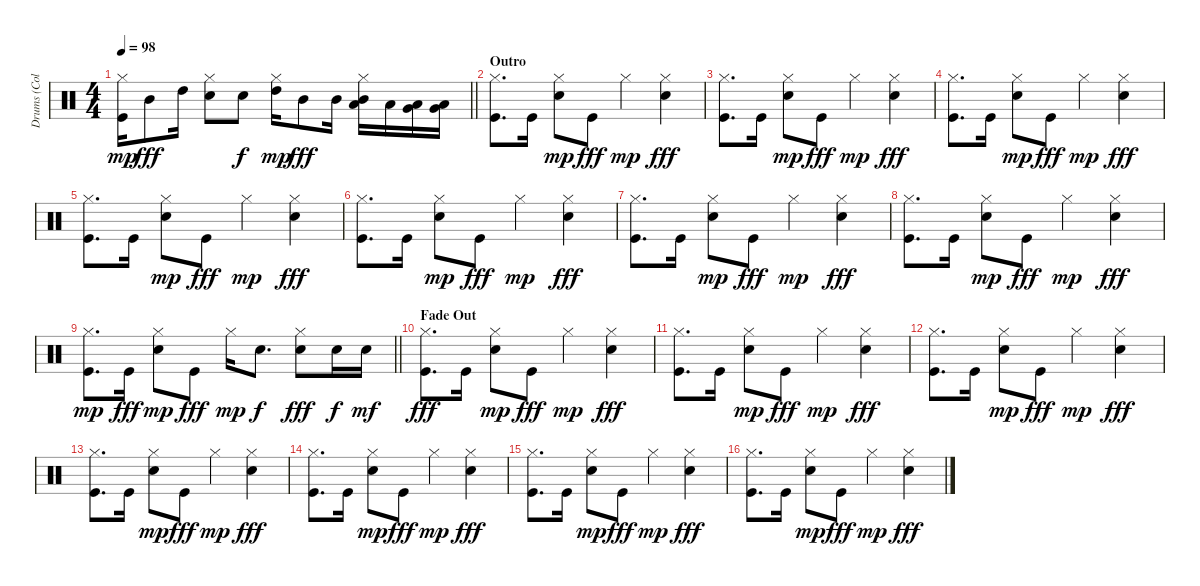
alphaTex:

\track ("Drums (Collins)" "Drums (Col") {instrument percussion}
\staff {score}
\articulation defaults
\ts (4 4)
\tempo 98
\clef neutral
\barLineRight lightlight
\ks c
("Kick (hit)" "Hi-Hat (closed)").16{dy mp} "Mid Tom (hit)".8{dy fff} "High Tom (hit)".16 ("Hi-Hat (closed)" "Electric Snare (hit)").8 "Electric Snare (hit)".8{dy f} ("High Tom (hit)" "Hi-Hat (closed)").16{dy mp} "Mid Tom (hit)".8{dy fff} "Mid Tom (hit)".16 ("Mid Tom (hit)" "Low Tom (hit)" "Hi-Hat (closed)").16 "Low Tom (hit)".16 ("Low Tom (hit)" "Very Low Tom (hit)").16 ("Low Tom (hit)" "Very Low Tom (hit)").16 |
\section ("" "Outro")
("Hi-Hat (closed)" "Kick (hit)").8{d} "Kick (hit)".16 ("Electric Snare (hit)" "Hi-Hat (closed)").8{dy mp} "Kick (hit)".8{dy fff} "Hi-Hat (closed)".4{dy mp} ("Hi-Hat (closed)" "Electric Snare (hit)").4{dy fff} |
("Hi-Hat (closed)" "Kick (hit)").8{d} "Kick (hit)".16 ("Electric Snare (hit)" "Hi-Hat (closed)").8{dy mp} "Kick (hit)".8{dy fff} "Hi-Hat (closed)".4{dy mp} ("Hi-Hat (closed)" "Electric Snare (hit)").4{dy fff} |
("Hi-Hat (closed)" "Kick (hit)").8{d} "Kick (hit)".16 ("Electric Snare (hit)" "Hi-Hat (closed)").8{dy mp} "Kick (hit)".8{dy fff} "Hi-Hat (closed)".4{dy mp} ("Hi-Hat (closed)" "Electric Snare (hit)").4{dy fff} |
("Hi-Hat (closed)" "Kick (hit)").8{d} "Kick (hit)".16 ("Electric Snare (hit)" "Hi-Hat (closed)").8{dy mp} "Kick (hit)".8{dy fff} "Hi-Hat (closed)".4{dy mp} ("Hi-Hat (closed)" "Electric Snare (hit)").4{dy fff} |
("Hi-Hat (closed)" "Kick (hit)").8{d} "Kick (hit)".16 ("Electric Snare (hit)" "Hi-Hat (closed)").8{dy mp} "Kick (hit)".8{dy fff} "Hi-Hat (closed)".4{dy mp} ("Hi-Hat (closed)" "Electric Snare (hit)").4{dy fff} |
("Hi-Hat (closed)" "Kick (hit)").8{d} "Kick (hit)".16 ("Electric Snare (hit)" "Hi-Hat (closed)").8{dy mp} "Kick (hit)".8{dy fff} "Hi-Hat (closed)".4{dy mp} ("Hi-Hat (closed)" "Electric Snare (hit)").4{dy fff} |
("Hi-Hat (closed)" "Kick (hit)").8{d} "Kick (hit)".16 ("Electric Snare (hit)" "Hi-Hat (closed)").8{dy mp} "Kick (hit)".8{dy fff} "Hi-Hat (closed)".4{dy mp} ("Hi-Hat (closed)" "Electric Snare (hit)").4{dy fff} |
\barLineRight lightlight
("Kick (hit)" "Hi-Hat (closed)").8{d dy mp} "Kick (hit)".16{dy fff} ("Electric Snare (hit)" "Hi-Hat (closed)").8{dy mp} "Kick (hit)".8{dy fff} "Hi-Hat (closed)".16{dy mp} "Electric Snare (hit)".8{d dy f} ("Hi-Hat (closed)" "Electric Snare (hit)").8{dy fff} "Electric Snare (hit)".16{dy f} "Electric Snare (hit)".16{dy mf} |
\section ("" "Fade Out")
("Hi-Hat (closed)" "Kick (hit)").8{d dy fff volume 10} "Kick (hit)".16 ("Electric Snare (hit)" "Hi-Hat (closed)").8{dy mp} "Kick (hit)".8{dy fff} "Hi-Hat (closed)".4{dy mp} ("Hi-Hat (closed)" "Electric Snare (hit)").4{dy fff} |
("Hi-Hat (closed)" "Kick (hit)").8{d} "Kick (hit)".16 ("Electric Snare (hit)" "Hi-Hat (closed)").8{dy mp} "Kick (hit)".8{dy fff} "Hi-Hat (closed)".4{dy mp} ("Hi-Hat (closed)" "Electric Snare (hit)").4{dy fff} |
("Hi-Hat (closed)" "Kick (hit)").8{d} "Kick (hit)".16 ("Electric Snare (hit)" "Hi-Hat (closed)").8{dy mp} "Kick (hit)".8{dy fff} "Hi-Hat (closed)".4{dy mp} ("Hi-Hat (closed)" "Electric Snare (hit)").4{dy fff} |
("Hi-Hat (closed)" "Kick (hit)").8{d volume 8} "Kick (hit)".16 ("Electric Snare (hit)" "Hi-Hat (closed)").8{dy mp} "Kick (hit)".8{dy fff} "Hi-Hat (closed)".4{dy mp} ("Hi-Hat (closed)" "Electric Snare (hit)").4{dy fff} |
("Hi-Hat (closed)" "Kick (hit)").8{d} "Kick (hit)".16 ("Electric Snare (hit)" "Hi-Hat (closed)").8{dy mp} "Kick (hit)".8{dy fff} "Hi-Hat (closed)".4{dy mp} ("Hi-Hat (closed)" "Electric Snare (hit)").4{dy fff} |
("Hi-Hat (closed)" "Kick (hit)").8{d} "Kick (hit)".16 ("Electric Snare (hit)" "Hi-Hat (closed)").8{dy mp} "Kick (hit)".8{dy fff} "Hi-Hat (closed)".4{dy mp} ("Hi-Hat (closed)" "Electric Snare (hit)").4{dy fff} |
("Hi-Hat (closed)" "Kick (hit)").8{d volume 6} "Kick (hit)".16 ("Electric Snare (hit)" "Hi-Hat (closed)").8{dy mp} "Kick (hit)".8{dy fff} "Hi-Hat (closed)".4{dy mp} ("Hi-Hat (closed)" "Electric Snare (hit)").4{dy fff}
